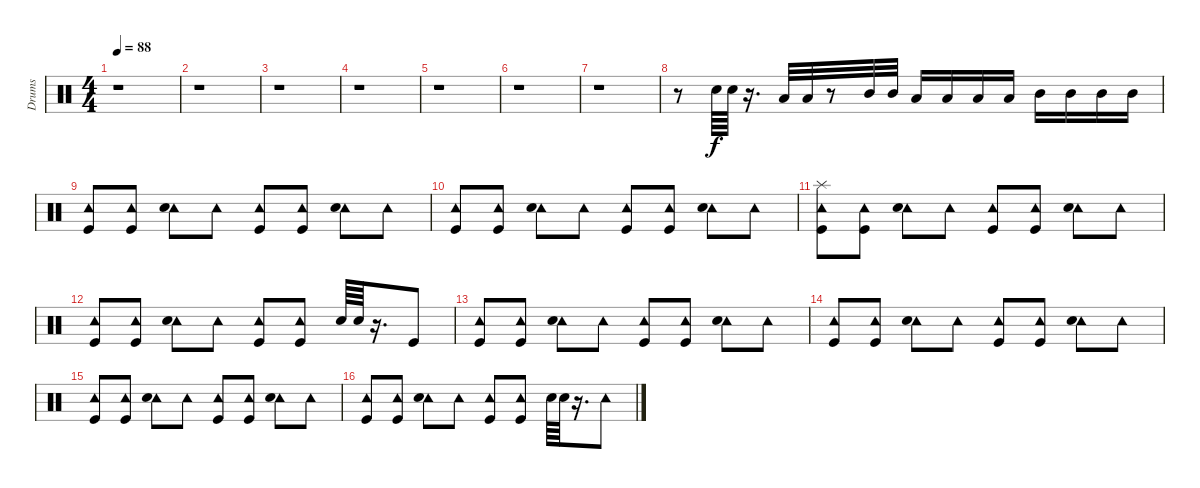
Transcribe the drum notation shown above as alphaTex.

\track ("Drums" "Drums") {instrument percussion}
\staff {score}
\articulation defaults
\ts (4 4)
\tempo 88
\clef neutral
\ks c
r.1{dy f} |
r.1 |
r.1 |
r.1 |
r.1 |
r.1 |
r.1 |
r.8 "Snare (hit) 2".64 "Snare (hit) 2".64 r.16{d} "Low Tom (hit)".32 "Low Tom (hit)".32 r.8 "Mid Tom (hit)".32 "Mid Tom (hit)".32 "Low Tom (hit)".16 "Low Tom (hit)".16 "Low Tom (hit)".16 "Low Tom (hit)".16 "Mid Tom (hit)".16 "Mid Tom (hit)".16 "Mid Tom (hit)".16 "Mid Tom (hit)".16 |
("Tambourine (hit)" "Kick (hit)").8 ("Tambourine (hit)" "Kick (hit)").8 ("Tambourine (hit)" "Snare (hit) 2").8 "Tambourine (hit)".8 ("Tambourine (hit)" "Kick (hit)").8 ("Tambourine (hit)" "Kick (hit)").8 ("Tambourine (hit)" "Snare (hit) 2").8 "Tambourine (hit)".8 |
("Tambourine (hit)" "Kick (hit)").8 ("Tambourine (hit)" "Kick (hit)").8 ("Tambourine (hit)" "Snare (hit) 2").8 "Tambourine (hit)".8 ("Tambourine (hit)" "Kick (hit)").8 ("Tambourine (hit)" "Kick (hit)").8 ("Tambourine (hit)" "Snare (hit) 2").8 "Tambourine (hit)".8 |
("Tambourine (hit)" "Kick (hit)" "Splash (hit)").8 ("Tambourine (hit)" "Kick (hit)").8 ("Tambourine (hit)" "Snare (hit) 2").8 "Tambourine (hit)".8 ("Tambourine (hit)" "Kick (hit)").8 ("Tambourine (hit)" "Kick (hit)").8 ("Tambourine (hit)" "Snare (hit) 2").8 "Tambourine (hit)".8 |
("Tambourine (hit)" "Kick (hit)").8 ("Tambourine (hit)" "Kick (hit)").8 ("Tambourine (hit)" "Snare (hit) 2").8 "Tambourine (hit)".8 ("Tambourine (hit)" "Kick (hit)").8 ("Tambourine (hit)" "Kick (hit)").8 "Snare (hit) 2".64 "Snare (hit) 2".64 r.16{d} "Kick (hit)".8 |
("Tambourine (hit)" "Kick (hit)").8 ("Tambourine (hit)" "Kick (hit)").8 ("Tambourine (hit)" "Snare (hit) 2").8 "Tambourine (hit)".8 ("Tambourine (hit)" "Kick (hit)").8 ("Tambourine (hit)" "Kick (hit)").8 ("Tambourine (hit)" "Snare (hit) 2").8 "Tambourine (hit)".8 |
("Tambourine (hit)" "Kick (hit)").8 ("Tambourine (hit)" "Kick (hit)").8 ("Tambourine (hit)" "Snare (hit) 2").8 "Tambourine (hit)".8 ("Tambourine (hit)" "Kick (hit)").8 ("Tambourine (hit)" "Kick (hit)").8 ("Tambourine (hit)" "Snare (hit) 2").8 "Tambourine (hit)".8 |
("Tambourine (hit)" "Kick (hit)").8 ("Tambourine (hit)" "Kick (hit)").8 ("Tambourine (hit)" "Snare (hit) 2").8 "Tambourine (hit)".8 ("Tambourine (hit)" "Kick (hit)").8 ("Tambourine (hit)" "Kick (hit)").8 ("Tambourine (hit)" "Snare (hit) 2").8 "Tambourine (hit)".8 |
("Tambourine (hit)" "Kick (hit)").8 ("Tambourine (hit)" "Kick (hit)").8 ("Tambourine (hit)" "Snare (hit) 2").8 "Tambourine (hit)".8 ("Tambourine (hit)" "Kick (hit)").8 ("Tambourine (hit)" "Kick (hit)").8 "Snare (hit) 2".64 "Snare (hit) 2".64 r.16{d} "Tambourine (hit)".8
